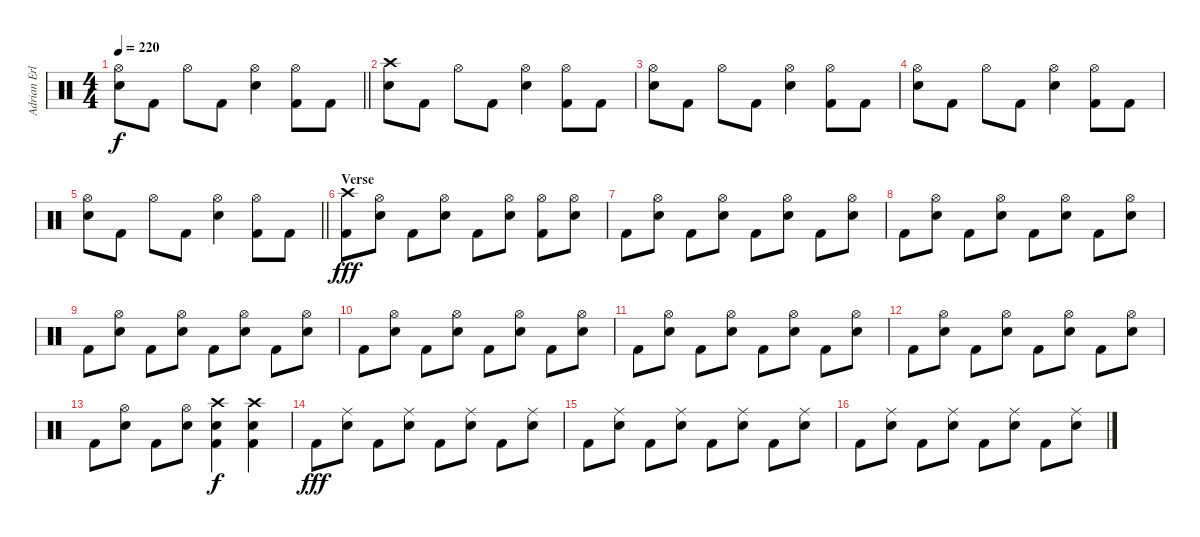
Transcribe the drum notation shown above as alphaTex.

\track ("Adrian Erlandsson" "Adrian Erl") {instrument percussion}
\staff {score}
\articulation defaults
\ts (4 4)
\tempo 220
\clef neutral
\barLineRight lightlight
\ks c
("Hi-Hat (open)" "Electric Snare (hit)").8{dy f} "Kick (hit) 2".8 "Hi-Hat (open)".8 "Kick (hit) 2".8 ("Hi-Hat (open)" "Electric Snare (hit)").4 ("Hi-Hat (open)" "Kick (hit) 2").8 "Kick (hit) 2".8 |
("Crash high (hit)" "Electric Snare (hit)").8 "Kick (hit) 2".8 "Hi-Hat (open)".8 "Kick (hit) 2".8 ("Hi-Hat (open)" "Electric Snare (hit)").4 ("Hi-Hat (open)" "Kick (hit) 2").8 "Kick (hit) 2".8 |
("Hi-Hat (open)" "Electric Snare (hit)").8 "Kick (hit) 2".8 "Hi-Hat (open)".8 "Kick (hit) 2".8 ("Hi-Hat (open)" "Electric Snare (hit)").4 ("Hi-Hat (open)" "Kick (hit) 2").8 "Kick (hit) 2".8 |
("Hi-Hat (open)" "Electric Snare (hit)").8 "Kick (hit) 2".8 "Hi-Hat (open)".8 "Kick (hit) 2".8 ("Hi-Hat (open)" "Electric Snare (hit)").4 ("Hi-Hat (open)" "Kick (hit) 2").8 "Kick (hit) 2".8 |
\barLineRight lightlight
("Hi-Hat (open)" "Electric Snare (hit)").8 "Kick (hit) 2".8 "Hi-Hat (open)".8 "Kick (hit) 2".8 ("Hi-Hat (open)" "Electric Snare (hit)").4 ("Hi-Hat (open)" "Kick (hit) 2").8 "Kick (hit) 2".8 |
\section ("" "Verse")
("Crash high (hit)" "Kick (hit) 2").8{dy fff} ("Hi-Hat (open)" "Electric Snare (hit)").8 "Kick (hit) 2".8 ("Hi-Hat (open)" "Electric Snare (hit)").8 "Kick (hit) 2".8 ("Hi-Hat (open)" "Electric Snare (hit)").8 ("Hi-Hat (open)" "Kick (hit) 2").8 ("Hi-Hat (open)" "Electric Snare (hit)").8 |
"Kick (hit) 2".8 ("Hi-Hat (open)" "Electric Snare (hit)").8 "Kick (hit) 2".8 ("Hi-Hat (open)" "Electric Snare (hit)").8 "Kick (hit) 2".8 ("Hi-Hat (open)" "Electric Snare (hit)").8 "Kick (hit) 2".8 ("Hi-Hat (open)" "Electric Snare (hit)").8 |
"Kick (hit) 2".8 ("Hi-Hat (open)" "Electric Snare (hit)").8 "Kick (hit) 2".8 ("Hi-Hat (open)" "Electric Snare (hit)").8 "Kick (hit) 2".8 ("Hi-Hat (open)" "Electric Snare (hit)").8 "Kick (hit) 2".8 ("Hi-Hat (open)" "Electric Snare (hit)").8 |
"Kick (hit) 2".8 ("Hi-Hat (open)" "Electric Snare (hit)").8 "Kick (hit) 2".8 ("Hi-Hat (open)" "Electric Snare (hit)").8 "Kick (hit) 2".8 ("Hi-Hat (open)" "Electric Snare (hit)").8 "Kick (hit) 2".8 ("Hi-Hat (open)" "Electric Snare (hit)").8 |
"Kick (hit) 2".8 ("Hi-Hat (open)" "Electric Snare (hit)").8 "Kick (hit) 2".8 ("Hi-Hat (open)" "Electric Snare (hit)").8 "Kick (hit) 2".8 ("Hi-Hat (open)" "Electric Snare (hit)").8 "Kick (hit) 2".8 ("Hi-Hat (open)" "Electric Snare (hit)").8 |
"Kick (hit) 2".8 ("Hi-Hat (open)" "Electric Snare (hit)").8 "Kick (hit) 2".8 ("Hi-Hat (open)" "Electric Snare (hit)").8 "Kick (hit) 2".8 ("Hi-Hat (open)" "Electric Snare (hit)").8 "Kick (hit) 2".8 ("Hi-Hat (open)" "Electric Snare (hit)").8 |
"Kick (hit) 2".8 ("Hi-Hat (open)" "Electric Snare (hit)").8 "Kick (hit) 2".8 ("Hi-Hat (open)" "Electric Snare (hit)").8 "Kick (hit) 2".8 ("Hi-Hat (open)" "Electric Snare (hit)").8 "Kick (hit) 2".8 ("Hi-Hat (open)" "Electric Snare (hit)").8 |
"Kick (hit) 2".8 ("Hi-Hat (open)" "Electric Snare (hit)").8 "Kick (hit) 2".8 ("Hi-Hat (open)" "Electric Snare (hit)").8 ("Crash high (hit)" "Electric Snare (hit)" "Kick (hit) 2").4{dy f} ("Crash high (hit)" "Electric Snare (hit)" "Kick (hit) 2").4 |
"Kick (hit) 2".8{dy fff} ("Ride (middle)" "Electric Snare (hit)").8 "Kick (hit) 2".8 ("Ride (middle)" "Electric Snare (hit)").8 "Kick (hit) 2".8 ("Ride (middle)" "Electric Snare (hit)").8 "Kick (hit) 2".8 ("Ride (middle)" "Electric Snare (hit)").8 |
"Kick (hit) 2".8 ("Ride (middle)" "Electric Snare (hit)").8 "Kick (hit) 2".8 ("Ride (middle)" "Electric Snare (hit)").8 "Kick (hit) 2".8 ("Ride (middle)" "Electric Snare (hit)").8 "Kick (hit) 2".8 ("Ride (middle)" "Electric Snare (hit)").8 |
"Kick (hit) 2".8 ("Ride (middle)" "Electric Snare (hit)").8 "Kick (hit) 2".8 ("Ride (middle)" "Electric Snare (hit)").8 "Kick (hit) 2".8 ("Ride (middle)" "Electric Snare (hit)").8 "Kick (hit) 2".8 ("Ride (middle)" "Electric Snare (hit)").8
